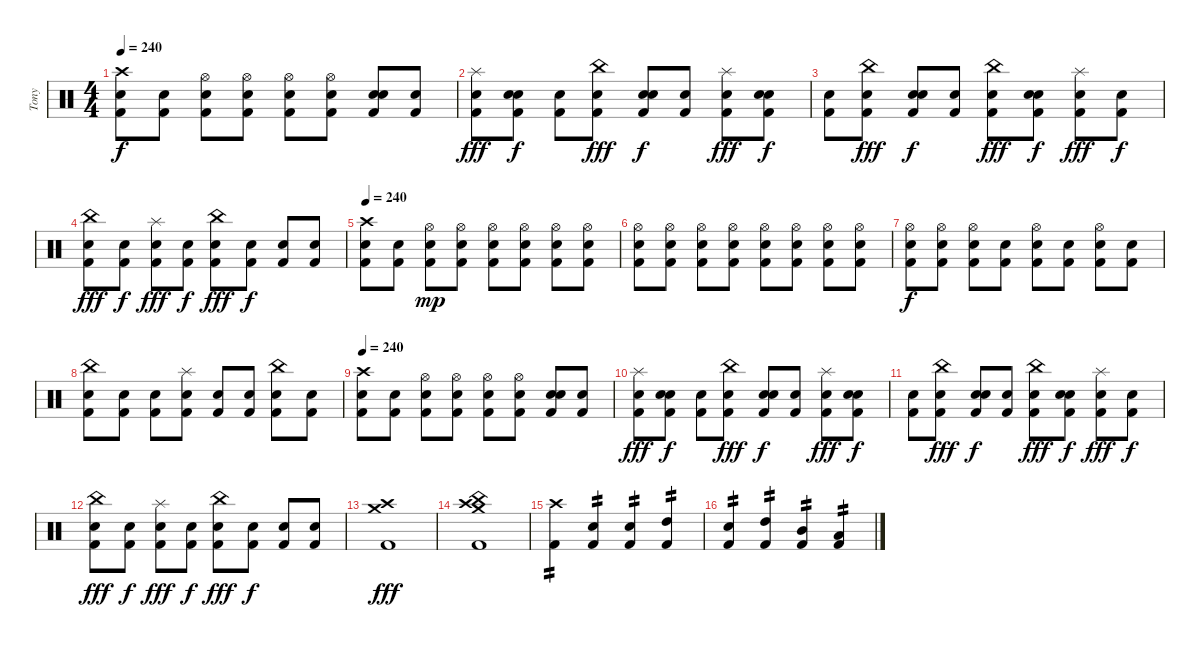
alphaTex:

\track ("Tony" "Tony") {instrument percussion}
\staff {score}
\articulation defaults
\ts (4 4)
\tempo 240
\clef neutral
\ks c
("Crash high (hit)" "Snare (hit) 2" "Kick (hit) 2").8{dy f} ("Snare (hit) 2" "Kick (hit) 2").8 ("Hi-Hat (open)" "Snare (hit) 2" "Kick (hit) 2").8 ("Hi-Hat (open)" "Snare (hit) 2" "Kick (hit) 2").8 ("Hi-Hat (open)" "Snare (hit) 2" "Kick (hit) 2").8 ("Hi-Hat (open)" "Snare (hit) 2" "Kick (hit) 2").8 ("Snare (hit)" "Snare (hit) 2" "Kick (hit) 2").8 ("Snare (hit) 2" "Kick (hit) 2").8 |
("Splash (hit)" "Snare (hit) 2" "Kick (hit) 2").8{dy fff} ("Snare (hit)" "Snare (hit) 2" "Kick (hit) 2").8{dy f} ("Snare (hit) 2" "Kick (hit) 2").8 ("China (hit)" "Snare (hit) 2" "Kick (hit) 2").8{dy fff} ("Snare (hit)" "Snare (hit) 2" "Kick (hit) 2").8{dy f} ("Snare (hit) 2" "Kick (hit) 2").8 ("Splash (hit)" "Snare (hit) 2" "Kick (hit) 2").8{dy fff} ("Snare (hit)" "Snare (hit) 2" "Kick (hit) 2").8{dy f} |
("Snare (hit) 2" "Kick (hit) 2").8 ("China (hit)" "Snare (hit) 2" "Kick (hit) 2").8{dy fff} ("Snare (hit)" "Snare (hit) 2" "Kick (hit) 2").8{dy f} ("Snare (hit) 2" "Kick (hit) 2").8 ("China (hit)" "Snare (hit) 2" "Kick (hit) 2").8{dy fff} ("Snare (hit)" "Snare (hit) 2" "Kick (hit) 2").8{dy f} ("Splash (hit)" "Snare (hit) 2" "Kick (hit) 2").8{dy fff} ("Snare (hit) 2" "Kick (hit) 2").8{dy f} |
("China (hit)" "Snare (hit) 2" "Kick (hit) 2").8{dy fff} ("Snare (hit) 2" "Kick (hit) 2").8{dy f} ("Splash (hit)" "Snare (hit) 2" "Kick (hit) 2").8{dy fff} ("Snare (hit) 2" "Kick (hit) 2").8{dy f} ("China (hit)" "Snare (hit) 2" "Kick (hit) 2").8{dy fff} ("Snare (hit) 2" "Kick (hit) 2").8{dy f} ("Snare (hit) 2" "Kick (hit) 2").8 ("Snare (hit) 2" "Kick (hit) 2").8 |
\tempo 240
("Crash high (hit)" "Snare (hit) 2" "Kick (hit) 2").8 ("Snare (hit) 2" "Kick (hit) 2").8 ("Hi-Hat (open)" "Snare (hit) 2" "Kick (hit) 2").8{dy mp} ("Hi-Hat (open)" "Snare (hit) 2" "Kick (hit) 2").8 ("Hi-Hat (open)" "Snare (hit) 2" "Kick (hit) 2").8 ("Hi-Hat (open)" "Snare (hit) 2" "Kick (hit) 2").8 ("Hi-Hat (open)" "Snare (hit) 2" "Kick (hit) 2").8 ("Hi-Hat (open)" "Snare (hit) 2" "Kick (hit) 2").8 |
("Hi-Hat (open)" "Snare (hit) 2" "Kick (hit) 2").8 ("Hi-Hat (open)" "Snare (hit) 2" "Kick (hit) 2").8 ("Hi-Hat (open)" "Snare (hit) 2" "Kick (hit) 2").8 ("Hi-Hat (open)" "Snare (hit) 2" "Kick (hit) 2").8 ("Hi-Hat (open)" "Snare (hit) 2" "Kick (hit) 2").8 ("Hi-Hat (open)" "Snare (hit) 2" "Kick (hit) 2").8 ("Hi-Hat (open)" "Snare (hit) 2" "Kick (hit) 2").8 ("Hi-Hat (open)" "Snare (hit) 2" "Kick (hit) 2").8 |
("Hi-Hat (open)" "Snare (hit) 2" "Kick (hit) 2").8{dy f} ("Hi-Hat (open)" "Snare (hit) 2" "Kick (hit) 2").8 ("Hi-Hat (open)" "Snare (hit) 2" "Kick (hit) 2").8 ("Snare (hit) 2" "Kick (hit) 2").8 ("Hi-Hat (open)" "Snare (hit) 2" "Kick (hit) 2").8 ("Snare (hit) 2" "Kick (hit) 2").8 ("Hi-Hat (open)" "Snare (hit) 2" "Kick (hit) 2").8 ("Snare (hit) 2" "Kick (hit) 2").8 |
("China (hit)" "Snare (hit) 2" "Kick (hit) 2").8 ("Snare (hit) 2" "Kick (hit) 2").8 ("Snare (hit) 2" "Kick (hit) 2").8 ("Splash (hit)" "Snare (hit) 2" "Kick (hit) 2").8 ("Snare (hit) 2" "Kick (hit) 2").8 ("Snare (hit) 2" "Kick (hit) 2").8 ("China (hit)" "Snare (hit) 2" "Kick (hit) 2").8 ("Snare (hit) 2" "Kick (hit) 2").8 |
\tempo 240
("Crash high (hit)" "Snare (hit) 2" "Kick (hit) 2").8 ("Snare (hit) 2" "Kick (hit) 2").8 ("Hi-Hat (open)" "Snare (hit) 2" "Kick (hit) 2").8 ("Hi-Hat (open)" "Snare (hit) 2" "Kick (hit) 2").8 ("Hi-Hat (open)" "Snare (hit) 2" "Kick (hit) 2").8 ("Hi-Hat (open)" "Snare (hit) 2" "Kick (hit) 2").8 ("Snare (hit)" "Snare (hit) 2" "Kick (hit) 2").8 ("Snare (hit) 2" "Kick (hit) 2").8 |
("Splash (hit)" "Snare (hit) 2" "Kick (hit) 2").8{dy fff} ("Snare (hit)" "Snare (hit) 2" "Kick (hit) 2").8{dy f} ("Snare (hit) 2" "Kick (hit) 2").8 ("China (hit)" "Snare (hit) 2" "Kick (hit) 2").8{dy fff} ("Snare (hit)" "Snare (hit) 2" "Kick (hit) 2").8{dy f} ("Snare (hit) 2" "Kick (hit) 2").8 ("Splash (hit)" "Snare (hit) 2" "Kick (hit) 2").8{dy fff} ("Snare (hit)" "Snare (hit) 2" "Kick (hit) 2").8{dy f} |
("Snare (hit) 2" "Kick (hit) 2").8 ("China (hit)" "Snare (hit) 2" "Kick (hit) 2").8{dy fff} ("Snare (hit)" "Snare (hit) 2" "Kick (hit) 2").8{dy f} ("Snare (hit) 2" "Kick (hit) 2").8 ("China (hit)" "Snare (hit) 2" "Kick (hit) 2").8{dy fff} ("Snare (hit)" "Snare (hit) 2" "Kick (hit) 2").8{dy f} ("Splash (hit)" "Snare (hit) 2" "Kick (hit) 2").8{dy fff} ("Snare (hit) 2" "Kick (hit) 2").8{dy f} |
("China (hit)" "Snare (hit) 2" "Kick (hit) 2").8{dy fff} ("Snare (hit) 2" "Kick (hit) 2").8{dy f} ("Splash (hit)" "Snare (hit) 2" "Kick (hit) 2").8{dy fff} ("Snare (hit) 2" "Kick (hit) 2").8{dy f} ("China (hit)" "Snare (hit) 2" "Kick (hit) 2").8{dy fff} ("Snare (hit) 2" "Kick (hit) 2").8{dy f} ("Snare (hit) 2" "Kick (hit) 2").8 ("Snare (hit) 2" "Kick (hit) 2").8 |
("Crash high (hit)" "Crash medium (hit)" "Kick (hit) 2").1{dy fff} |
("Crash high (hit)" "China (hit)" "Crash medium (hit)" "Kick (hit) 2").1 |
("Crash high (hit)" "Kick (hit) 2").4{tp 2} ("Snare (hit) 2" "Kick (hit) 2").4{tp 2} ("Snare (hit) 2" "Kick (hit) 2").4{tp 2} ("High Tom (hit)" "Kick (hit) 2").4{tp 2} |
("Snare (hit) 2" "Kick (hit) 2").4{tp 2} ("High Tom (hit)" "Kick (hit) 2").4{tp 2} ("Mid Tom (hit)" "Kick (hit) 2").4{tp 2} ("Low Tom (hit)" "Kick (hit) 2").4{tp 2}
